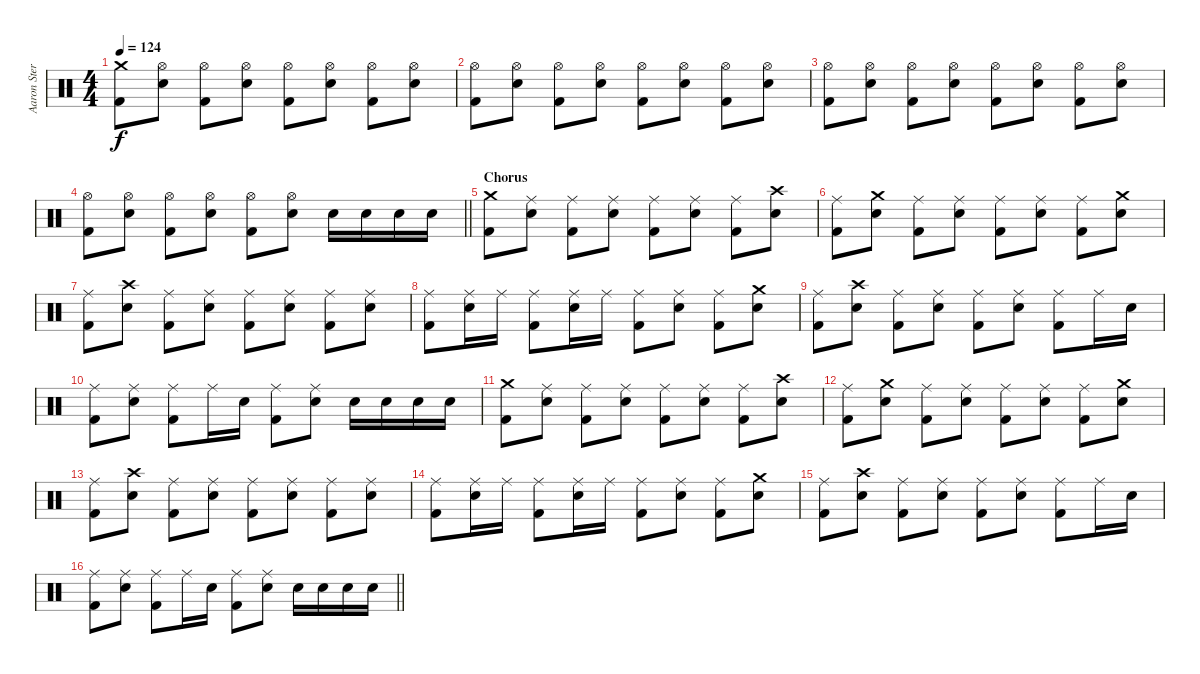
\track ("Aaron Stern" "Aaron Ster") {instrument percussion}
\staff {score}
\articulation defaults
\ts (4 4)
\tempo 124
\clef neutral
\ks c
("Crash medium (hit)" "Kick (hit) 2").8{dy f} ("Hi-Hat (open)" "Snare (hit) 2").8 ("Hi-Hat (open)" "Kick (hit) 2").8 ("Hi-Hat (open)" "Snare (hit) 2").8 ("Hi-Hat (open)" "Kick (hit) 2").8 ("Hi-Hat (open)" "Snare (hit) 2").8 ("Hi-Hat (open)" "Kick (hit) 2").8 ("Hi-Hat (open)" "Snare (hit) 2").8 |
("Hi-Hat (open)" "Kick (hit) 2").8 ("Hi-Hat (open)" "Snare (hit) 2").8 ("Hi-Hat (open)" "Kick (hit) 2").8 ("Hi-Hat (open)" "Snare (hit) 2").8 ("Hi-Hat (open)" "Kick (hit) 2").8 ("Hi-Hat (open)" "Snare (hit) 2").8 ("Hi-Hat (open)" "Kick (hit) 2").8 ("Hi-Hat (open)" "Snare (hit) 2").8 |
("Hi-Hat (open)" "Kick (hit) 2").8 ("Hi-Hat (open)" "Snare (hit) 2").8 ("Hi-Hat (open)" "Kick (hit) 2").8 ("Hi-Hat (open)" "Snare (hit) 2").8 ("Hi-Hat (open)" "Kick (hit) 2").8 ("Hi-Hat (open)" "Snare (hit) 2").8 ("Hi-Hat (open)" "Kick (hit) 2").8 ("Hi-Hat (open)" "Snare (hit) 2").8 |
\barLineRight lightlight
("Hi-Hat (open)" "Kick (hit) 2").8 ("Hi-Hat (open)" "Snare (hit) 2").8 ("Hi-Hat (open)" "Kick (hit) 2").8 ("Hi-Hat (open)" "Snare (hit) 2").8 ("Hi-Hat (open)" "Kick (hit) 2").8 ("Hi-Hat (open)" "Snare (hit) 2").8 "Snare (hit) 2".16 "Snare (hit) 2".16 "Snare (hit) 2".16 "Snare (hit) 2".16 |
\section ("" "Chorus")
("Crash medium (hit)" "Kick (hit) 2").8 ("Ride (middle)" "Snare (hit) 2").8 ("Ride (middle)" "Kick (hit) 2").8 ("Ride (middle)" "Snare (hit) 2").8 ("Ride (middle)" "Kick (hit) 2").8 ("Ride (middle)" "Snare (hit) 2").8 ("Ride (middle)" "Kick (hit) 2").8 ("Crash high (hit)" "Snare (hit) 2").8 |
("Ride (middle)" "Kick (hit) 2").8 ("Crash medium (hit)" "Snare (hit) 2").8 ("Ride (middle)" "Kick (hit) 2").8 ("Ride (middle)" "Snare (hit) 2").8 ("Ride (middle)" "Kick (hit) 2").8 ("Ride (middle)" "Snare (hit) 2").8 ("Ride (middle)" "Kick (hit) 2").8 ("Crash medium (hit)" "Snare (hit) 2").8 |
("Ride (middle)" "Kick (hit) 2").8 ("Crash high (hit)" "Snare (hit) 2").8 ("Ride (middle)" "Kick (hit) 2").8 ("Ride (middle)" "Snare (hit) 2").8 ("Ride (middle)" "Kick (hit) 2").8 ("Ride (middle)" "Snare (hit) 2").8 ("Ride (middle)" "Kick (hit) 2").8 ("Ride (middle)" "Snare (hit) 2").8 |
("Ride (middle)" "Kick (hit) 2").8 ("Ride (middle)" "Snare (hit) 2").16 "Ride (middle)".16 ("Ride (middle)" "Kick (hit) 2").8 ("Ride (middle)" "Snare (hit) 2").16 "Ride (middle)".16 ("Ride (middle)" "Kick (hit) 2").8 ("Ride (middle)" "Snare (hit) 2").8 ("Ride (middle)" "Kick (hit) 2").8 ("Crash medium (hit)" "Snare (hit) 2").8 |
("Ride (middle)" "Kick (hit) 2").8 ("Crash high (hit)" "Snare (hit) 2").8 ("Ride (middle)" "Kick (hit) 2").8 ("Ride (middle)" "Snare (hit) 2").8 ("Ride (middle)" "Kick (hit) 2").8 ("Ride (middle)" "Snare (hit) 2").8 ("Ride (middle)" "Kick (hit) 2").8 "Ride (middle)".16 "Snare (hit) 2".16 |
("Ride (middle)" "Kick (hit) 2").8 ("Ride (middle)" "Snare (hit) 2").8 ("Ride (middle)" "Kick (hit) 2").8 "Ride (middle)".16 "Snare (hit) 2".16 ("Ride (middle)" "Kick (hit) 2").8 ("Ride (middle)" "Snare (hit) 2").8 "Snare (hit) 2".16 "Snare (hit) 2".16 "Snare (hit) 2".16 "Snare (hit) 2".16 |
("Crash medium (hit)" "Kick (hit) 2").8 ("Ride (middle)" "Snare (hit) 2").8 ("Ride (middle)" "Kick (hit) 2").8 ("Ride (middle)" "Snare (hit) 2").8 ("Ride (middle)" "Kick (hit) 2").8 ("Ride (middle)" "Snare (hit) 2").8 ("Ride (middle)" "Kick (hit) 2").8 ("Crash high (hit)" "Snare (hit) 2").8 |
("Ride (middle)" "Kick (hit) 2").8 ("Crash medium (hit)" "Snare (hit) 2").8 ("Ride (middle)" "Kick (hit) 2").8 ("Ride (middle)" "Snare (hit) 2").8 ("Ride (middle)" "Kick (hit) 2").8 ("Ride (middle)" "Snare (hit) 2").8 ("Ride (middle)" "Kick (hit) 2").8 ("Crash medium (hit)" "Snare (hit) 2").8 |
("Ride (middle)" "Kick (hit) 2").8 ("Crash high (hit)" "Snare (hit) 2").8 ("Ride (middle)" "Kick (hit) 2").8 ("Ride (middle)" "Snare (hit) 2").8 ("Ride (middle)" "Kick (hit) 2").8 ("Ride (middle)" "Snare (hit) 2").8 ("Ride (middle)" "Kick (hit) 2").8 ("Ride (middle)" "Snare (hit) 2").8 |
("Ride (middle)" "Kick (hit) 2").8 ("Ride (middle)" "Snare (hit) 2").16 "Ride (middle)".16 ("Ride (middle)" "Kick (hit) 2").8 ("Ride (middle)" "Snare (hit) 2").16 "Ride (middle)".16 ("Ride (middle)" "Kick (hit) 2").8 ("Ride (middle)" "Snare (hit) 2").8 ("Ride (middle)" "Kick (hit) 2").8 ("Crash medium (hit)" "Snare (hit) 2").8 |
("Ride (middle)" "Kick (hit) 2").8 ("Crash high (hit)" "Snare (hit) 2").8 ("Ride (middle)" "Kick (hit) 2").8 ("Ride (middle)" "Snare (hit) 2").8 ("Ride (middle)" "Kick (hit) 2").8 ("Ride (middle)" "Snare (hit) 2").8 ("Ride (middle)" "Kick (hit) 2").8 "Ride (middle)".16 "Snare (hit) 2".16 |
\barLineRight lightlight
("Ride (middle)" "Kick (hit) 2").8 ("Ride (middle)" "Snare (hit) 2").8 ("Ride (middle)" "Kick (hit) 2").8 "Ride (middle)".16 "Snare (hit) 2".16 ("Ride (middle)" "Kick (hit) 2").8 ("Ride (middle)" "Snare (hit) 2").8 "Snare (hit) 2".16 "Snare (hit) 2".16 "Snare (hit) 2".16 "Snare (hit) 2".16
